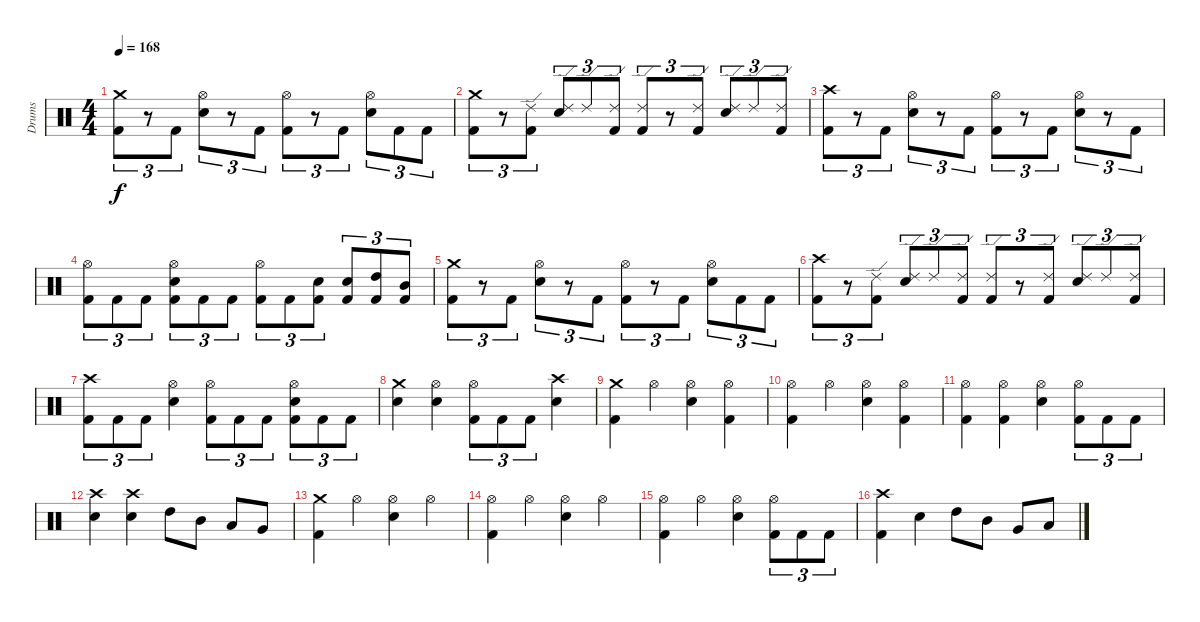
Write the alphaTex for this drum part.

\track ("Drums" "Drums") {instrument percussion}
\staff {score}
\articulation defaults
\ts (4 4)
\tempo 168
\clef neutral
\ks c
("Kick (hit) 2" "Crash medium (hit)").8{tu (3 2) dy f} r.8{tu (3 2)} "Kick (hit) 2".8{tu (3 2)} ("Electric Snare (hit)" "Hi-Hat (open)").8{tu (3 2)} r.8{tu (3 2)} "Kick (hit) 2".8{tu (3 2)} ("Kick (hit) 2" "Hi-Hat (open)").8{tu (3 2)} r.8{tu (3 2)} "Kick (hit) 2".8{tu (3 2)} ("Electric Snare (hit)" "Hi-Hat (open)").8{tu (3 2)} "Kick (hit) 2".8{tu (3 2)} "Kick (hit) 2".8{tu (3 2)} |
("Kick (hit) 2" "Crash medium (hit)").8{tu (3 2)} r.8{tu (3 2)} ("Kick (hit) 2" "Ride (edge) 2").8{tu (3 2)} ("Electric Snare (hit)" "Ride (edge) 2").8{tu (3 2)} "Ride (edge) 2".8{tu (3 2)} ("Kick (hit) 2" "Ride (edge) 2").8{tu (3 2)} ("Kick (hit) 2" "Ride (edge) 2").8{tu (3 2)} r.8{tu (3 2)} ("Kick (hit) 2" "Ride (edge) 2").8{tu (3 2)} ("Electric Snare (hit)" "Ride (edge) 2").8{tu (3 2)} "Ride (edge) 2".8{tu (3 2)} ("Kick (hit) 2" "Ride (edge) 2").8{tu (3 2)} |
("Kick (hit) 2" "Crash high (hit)").8{tu (3 2)} r.8{tu (3 2)} "Kick (hit) 2".8{tu (3 2)} ("Electric Snare (hit)" "Hi-Hat (open)").8{tu (3 2)} r.8{tu (3 2)} "Kick (hit) 2".8{tu (3 2)} ("Kick (hit) 2" "Hi-Hat (open)").8{tu (3 2)} r.8{tu (3 2)} "Kick (hit) 2".8{tu (3 2)} ("Electric Snare (hit)" "Hi-Hat (open)").8{tu (3 2)} r.8{tu (3 2)} "Kick (hit) 2".8{tu (3 2)} |
("Kick (hit) 2" "Hi-Hat (open)").8{tu (3 2)} "Kick (hit) 2".8{tu (3 2)} "Kick (hit) 2".8{tu (3 2)} ("Kick (hit) 2" "Electric Snare (hit)" "Hi-Hat (open)").8{tu (3 2)} "Kick (hit) 2".8{tu (3 2)} "Kick (hit) 2".8{tu (3 2)} ("Kick (hit) 2" "Hi-Hat (open)").8{tu (3 2)} "Kick (hit) 2".8{tu (3 2)} ("Kick (hit) 2" "Electric Snare (hit)").8{tu (3 2)} ("Kick (hit) 2" "Electric Snare (hit)").8{tu (3 2)} ("Kick (hit) 2" "High Tom (hit)").8{tu (3 2)} ("Kick (hit) 2" "Mid Tom (hit)").8{tu (3 2)} |
("Kick (hit) 2" "Crash medium (hit)").8{tu (3 2)} r.8{tu (3 2)} "Kick (hit) 2".8{tu (3 2)} ("Electric Snare (hit)" "Hi-Hat (open)").8{tu (3 2)} r.8{tu (3 2)} "Kick (hit) 2".8{tu (3 2)} ("Kick (hit) 2" "Hi-Hat (open)").8{tu (3 2)} r.8{tu (3 2)} "Kick (hit) 2".8{tu (3 2)} ("Electric Snare (hit)" "Hi-Hat (open)").8{tu (3 2)} "Kick (hit) 2".8{tu (3 2)} "Kick (hit) 2".8{tu (3 2)} |
("Kick (hit) 2" "Crash high (hit)").8{tu (3 2)} r.8{tu (3 2)} ("Kick (hit) 2" "Ride (edge) 2").8{tu (3 2)} ("Electric Snare (hit)" "Ride (edge) 2").8{tu (3 2)} "Ride (edge) 2".8{tu (3 2)} ("Kick (hit) 2" "Ride (edge) 2").8{tu (3 2)} ("Kick (hit) 2" "Ride (edge) 2").8{tu (3 2)} r.8{tu (3 2)} ("Kick (hit) 2" "Ride (edge) 2").8{tu (3 2)} ("Electric Snare (hit)" "Ride (edge) 2").8{tu (3 2)} "Ride (edge) 2".8{tu (3 2)} ("Kick (hit) 2" "Ride (edge) 2").8{tu (3 2)} |
\section ("" "")
("Kick (hit) 2" "Crash high (hit)").8{tu (3 2)} "Kick (hit) 2".8{tu (3 2)} "Kick (hit) 2".8{tu (3 2)} ("Electric Snare (hit)" "Hi-Hat (open)").4 ("Kick (hit) 2" "Hi-Hat (open)").8{tu (3 2)} "Kick (hit) 2".8{tu (3 2)} "Kick (hit) 2".8{tu (3 2)} ("Kick (hit) 2" "Electric Snare (hit)" "Hi-Hat (open)").8{tu (3 2)} "Kick (hit) 2".8{tu (3 2)} "Kick (hit) 2".8{tu (3 2)} |
("Electric Snare (hit)" "Crash medium (hit)").4 ("Electric Snare (hit)" "Hi-Hat (open)").4 ("Kick (hit) 2" "Hi-Hat (open)").8{tu (3 2)} "Kick (hit) 2".8{tu (3 2)} "Kick (hit) 2".8{tu (3 2)} ("Electric Snare (hit)" "Crash high (hit)").4 |
("Kick (hit) 2" "Crash medium (hit)").4 "Hi-Hat (open)".4 ("Electric Snare (hit)" "Hi-Hat (open)").4 ("Kick (hit) 2" "Hi-Hat (open)").4 |
("Kick (hit) 2" "Hi-Hat (open)").4 "Hi-Hat (open)".4 ("Electric Snare (hit)" "Hi-Hat (open)").4 ("Kick (hit) 2" "Hi-Hat (open)").4 |
("Kick (hit) 2" "Hi-Hat (open)").4 ("Kick (hit) 2" "Hi-Hat (open)").4 ("Electric Snare (hit)" "Hi-Hat (open)").4 ("Kick (hit) 2" "Hi-Hat (open)").8{tu (3 2)} "Kick (hit) 2".8{tu (3 2)} "Kick (hit) 2".8{tu (3 2)} |
\section ("" "")
("Electric Snare (hit)" "Crash high (hit)").4 ("Electric Snare (hit)" "Crash high (hit)").4 "High Tom (hit)".8 "Mid Tom (hit)".8 "Low Tom (hit)".8 "Very Low Tom (hit)".8 |
("Kick (hit) 2" "Crash medium (hit)").4 "Hi-Hat (open)".4 ("Electric Snare (hit)" "Hi-Hat (open)").4 "Hi-Hat (open)".4 |
("Kick (hit) 2" "Hi-Hat (open)").4 "Hi-Hat (open)".4 ("Electric Snare (hit)" "Hi-Hat (open)").4 "Hi-Hat (open)".4 |
("Kick (hit) 2" "Hi-Hat (open)").4 "Hi-Hat (open)".4 ("Electric Snare (hit)" "Hi-Hat (open)").4 ("Kick (hit) 2" "Hi-Hat (open)").8{tu (3 2)} "Kick (hit) 2".8{tu (3 2)} "Kick (hit) 2".8{tu (3 2)} |
("Kick (hit) 2" "Crash high (hit)").4 "Electric Snare (hit)".4 "High Tom (hit)".8 "Mid Tom (hit)".8 "Very Low Tom (hit)".8 "Low Floor Tom (hit)".8
